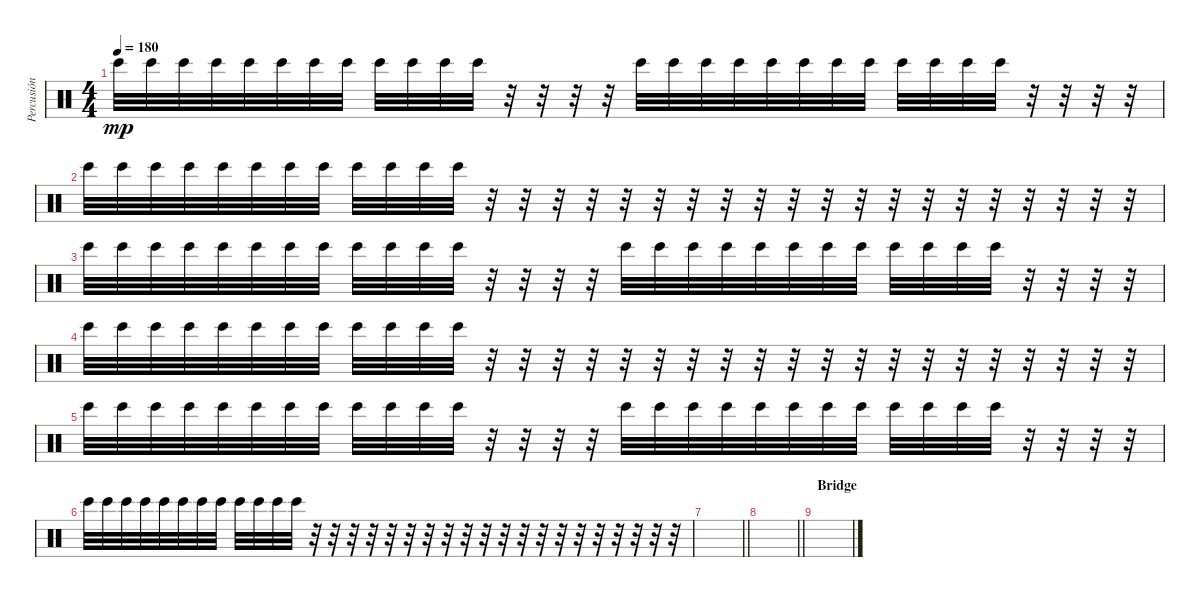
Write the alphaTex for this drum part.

\track ("Percusión" "Percusión") {instrument percussion}
\staff {score}
\articulation defaults
\ts (4 4)
\tempo 180
\clef neutral
\ks c "Bongo High (hit)".32{dy mp} "Bongo High (hit)".32 "Bongo High (hit)".32 "Bongo High (hit)".32 "Bongo High (hit)".32 "Bongo High (hit)".32 "Bongo High (hit)".32 "Bongo High (hit)".32 "Bongo High (hit)".32 "Bongo High (hit)".32 "Bongo High (hit)".32 "Bongo High (hit)".32
r.32 r.32 r.32 r.32 "Bongo High (hit)".32 "Bongo High (hit)".32 "Bongo High (hit)".32 "Bongo High (hit)".32 "Bongo High (hit)".32 "Bongo High (hit)".32 "Bongo High (hit)".32 "Bongo High (hit)".32 "Bongo High (hit)".32 "Bongo High (hit)".32 "Bongo High (hit)".32 "Bongo High (hit)".32 r.32 r.32 r.32 r.32 |
"Bongo High (hit)".32 "Bongo High (hit)".32 "Bongo High (hit)".32 "Bongo High (hit)".32 "Bongo High (hit)".32 "Bongo High (hit)".32 "Bongo High (hit)".32 "Bongo High (hit)".32 "Bongo High (hit)".32 "Bongo High (hit)".32 "Bongo High (hit)".32 "Bongo High (hit)".32 r.32 r.32 r.32 r.32 r.32 r.32 r.32 r.32 r.32 r.32 r.32 r.32 r.32 r.32 r.32 r.32 r.32 r.32 r.32 r.32 |
"Bongo High (hit)".32 "Bongo High (hit)".32 "Bongo High (hit)".32 "Bongo High (hit)".32 "Bongo High (hit)".32 "Bongo High (hit)".32 "Bongo High (hit)".32 "Bongo High (hit)".32 "Bongo High (hit)".32 "Bongo High (hit)".32 "Bongo High (hit)".32 "Bongo High (hit)".32 r.32 r.32 r.32 r.32 "Bongo High (hit)".32 "Bongo High (hit)".32 "Bongo High (hit)".32 "Bongo High (hit)".32 "Bongo High (hit)".32 "Bongo High (hit)".32 "Bongo High (hit)".32 "Bongo High (hit)".32 "Bongo High (hit)".32 "Bongo High (hit)".32 "Bongo High (hit)".32 "Bongo High (hit)".32 r.32 r.32 r.32 r.32 |
"Bongo High (hit)".32 "Bongo High (hit)".32 "Bongo High (hit)".32 "Bongo High (hit)".32 "Bongo High (hit)".32 "Bongo High (hit)".32 "Bongo High (hit)".32 "Bongo High (hit)".32 "Bongo High (hit)".32 "Bongo High (hit)".32 "Bongo High (hit)".32 "Bongo High (hit)".32 r.32 r.32 r.32 r.32 r.32 r.32 r.32 r.32 r.32 r.32 r.32 r.32 r.32 r.32 r.32 r.32 r.32 r.32 r.32 r.32 |
"Bongo High (hit)".32 "Bongo High (hit)".32 "Bongo High (hit)".32 "Bongo High (hit)".32 "Bongo High (hit)".32 "Bongo High (hit)".32 "Bongo High (hit)".32 "Bongo High (hit)".32 "Bongo High (hit)".32 "Bongo High (hit)".32 "Bongo High (hit)".32 "Bongo High (hit)".32 r.32 r.32 r.32 r.32 "Bongo High (hit)".32 "Bongo High (hit)".32 "Bongo High (hit)".32 "Bongo High (hit)".32 "Bongo High (hit)".32 "Bongo High (hit)".32 "Bongo High (hit)".32 "Bongo High (hit)".32 "Bongo High (hit)".32 "Bongo High (hit)".32 "Bongo High (hit)".32 "Bongo High (hit)".32 r.32 r.32 r.32 r.32 |
"Bongo High (hit)".32 "Bongo High (hit)".32 "Bongo High (hit)".32 "Bongo High (hit)".32 "Bongo High (hit)".32 "Bongo High (hit)".32 "Bongo High (hit)".32 "Bongo High (hit)".32 "Bongo High (hit)".32 "Bongo High (hit)".32 "Bongo High (hit)".32 "Bongo High (hit)".32 r.32 r.32 r.32 r.32 r.32 r.32 r.32 r.32 r.32 r.32 r.32 r.32 r.32 r.32 r.32 r.32 r.32 r.32 r.32 r.32 |
\barLineRight lightlight
|
\barLineRight lightlight
|
\section ("" "Bridge")
